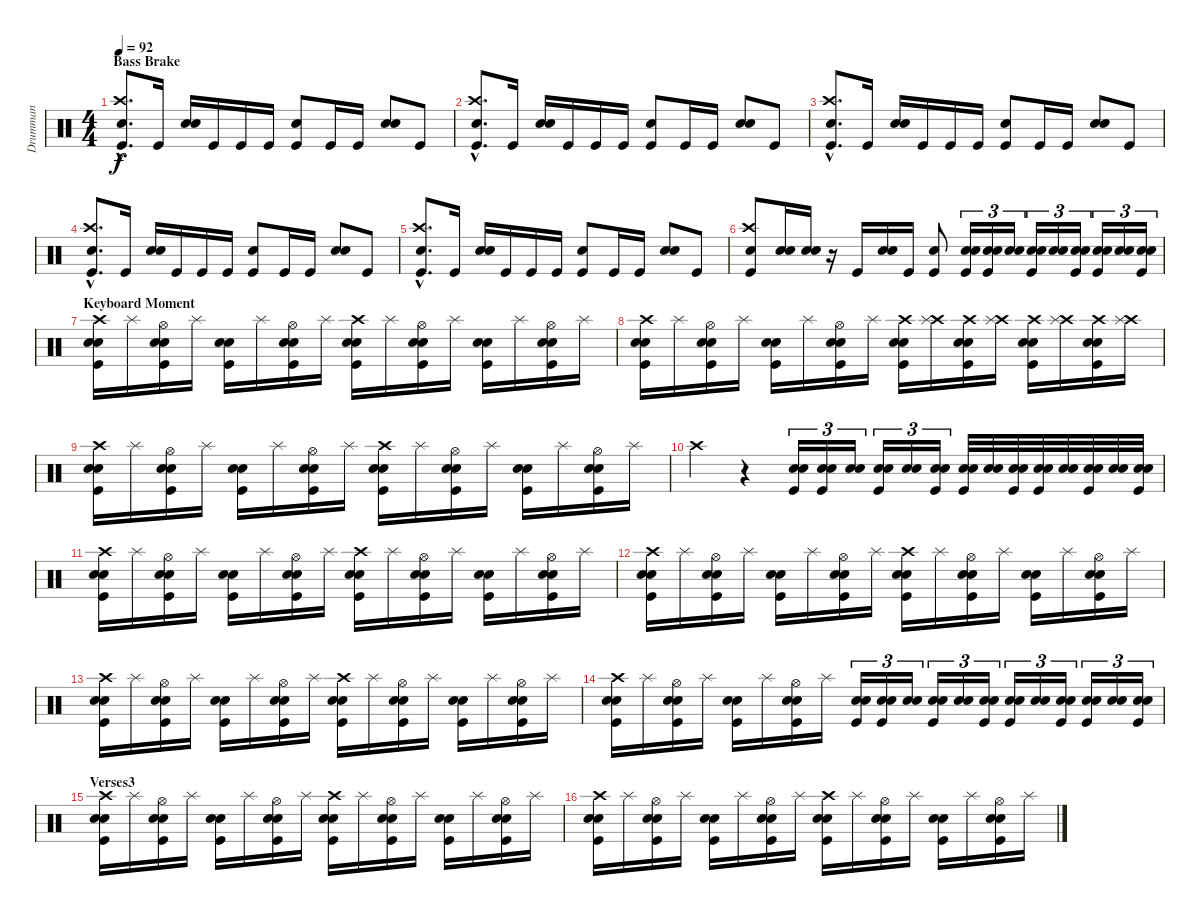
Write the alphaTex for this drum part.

\track ("Drumman" "Drumman") {instrument percussion}
\staff {score}
\articulation defaults
\ts (4 4)
\section ("" "Bass Brake")
\tempo 92
\clef neutral
\ks c
("Hand Clap (hit)"{hac} "Crash high (hit)"{hac} "Kick (hit)"{hac}).8{d dy f} "Kick (hit)".16 ("Snare (hit) 2" "Electric Snare (hit)").16 "Kick (hit)".16 "Kick (hit)".16 "Kick (hit)".16 ("Hand Clap (hit)" "Kick (hit)").8 "Kick (hit)".16 "Kick (hit)".16 ("Snare (hit) 2" "Electric Snare (hit)").8 "Kick (hit)".8 |
("Hand Clap (hit)"{hac} "Crash high (hit)"{hac} "Kick (hit)"{hac}).8{d} "Kick (hit)".16 ("Snare (hit) 2" "Electric Snare (hit)").16 "Kick (hit)".16 "Kick (hit)".16 "Kick (hit)".16 ("Hand Clap (hit)" "Kick (hit)").8 "Kick (hit)".16 "Kick (hit)".16 ("Snare (hit) 2" "Electric Snare (hit)").8 "Kick (hit)".8 |
("Hand Clap (hit)"{hac} "Crash high (hit)"{hac} "Kick (hit)"{hac}).8{d} "Kick (hit)".16 ("Snare (hit) 2" "Electric Snare (hit)").16 "Kick (hit)".16 "Kick (hit)".16 "Kick (hit)".16 ("Hand Clap (hit)" "Kick (hit)").8 "Kick (hit)".16 "Kick (hit)".16 ("Snare (hit) 2" "Electric Snare (hit)").8 "Kick (hit)".8 |
("Hand Clap (hit)"{hac} "Crash high (hit)"{hac} "Kick (hit)"{hac}).8{d} "Kick (hit)".16 ("Snare (hit) 2" "Electric Snare (hit)").16 "Kick (hit)".16 "Kick (hit)".16 "Kick (hit)".16 ("Hand Clap (hit)" "Kick (hit)").8 "Kick (hit)".16 "Kick (hit)".16 ("Snare (hit) 2" "Electric Snare (hit)").8 "Kick (hit)".8 |
("Hand Clap (hit)"{hac} "Crash high (hit)"{hac} "Kick (hit)"{hac}).8{d} "Kick (hit)".16 ("Snare (hit) 2" "Electric Snare (hit)").16 "Kick (hit)".16 "Kick (hit)".16 "Kick (hit)".16 ("Hand Clap (hit)" "Kick (hit)").8 "Kick (hit)".16 "Kick (hit)".16 ("Snare (hit) 2" "Electric Snare (hit)").8 "Kick (hit)".8 |
("Hand Clap (hit)" "Crash high (hit)" "Kick (hit)").8 ("Snare (hit) 2" "Electric Snare (hit)").16 ("Snare (hit) 2" "Electric Snare (hit)").16 r.16 "Kick (hit)".16 ("Snare (hit) 2" "Electric Snare (hit)").16 "Kick (hit)".16 ("Hand Clap (hit)" "Kick (hit)").8 ("Snare (hit) 2" "Electric Snare (hit)" "Kick (hit)").16{tu (3 2)} ("Snare (hit) 2" "Electric Snare (hit)" "Kick (hit)").16{tu (3 2)} ("Snare (hit) 2" "Electric Snare (hit)").16{tu (3 2)} ("Snare (hit) 2" "Electric Snare (hit)" "Kick (hit)").16{tu (3 2)} ("Snare (hit) 2" "Electric Snare (hit)").16{tu (3 2)} ("Snare (hit) 2" "Electric Snare (hit)" "Kick (hit)").16{tu (3 2)} ("Snare (hit) 2" "Electric Snare (hit)" "Kick (hit)").16{tu (3 2)} ("Snare (hit) 2" "Electric Snare (hit)").16{tu (3 2)} ("Snare (hit) 2" "Electric Snare (hit)" "Kick (hit)").16{tu (3 2)} |
\section ("" "Keyboard Moment")
("Crash high (hit)" "Snare (hit) 2" "Electric Snare (hit)" "Kick (hit)").16 "Splash (hit)".16 ("Hi-Hat (open)" "Snare (hit) 2" "Electric Snare (hit)" "Kick (hit)").16 "Splash (hit)".16 ("Snare (hit) 2" "Electric Snare (hit)" "Kick (hit)").16 "Splash (hit)".16 ("Hi-Hat (open)" "Snare (hit) 2" "Electric Snare (hit)" "Kick (hit)").16 "Splash (hit)".16 ("Crash high (hit)" "Snare (hit) 2" "Electric Snare (hit)" "Kick (hit)").16 "Splash (hit)".16 ("Hi-Hat (open)" "Snare (hit) 2" "Electric Snare (hit)" "Kick (hit)").16 "Splash (hit)".16 ("Snare (hit) 2" "Electric Snare (hit)" "Kick (hit)").16 "Splash (hit)".16 ("Hi-Hat (open)" "Snare (hit) 2" "Electric Snare (hit)" "Kick (hit)").16 "Splash (hit)".16 |
("Crash high (hit)" "Snare (hit) 2" "Electric Snare (hit)" "Kick (hit)").16 "Splash (hit)".16 ("Hi-Hat (open)" "Snare (hit) 2" "Electric Snare (hit)" "Kick (hit)").16 "Splash (hit)".16 ("Snare (hit) 2" "Electric Snare (hit)" "Kick (hit)").16 "Splash (hit)".16 ("Hi-Hat (open)" "Snare (hit) 2" "Electric Snare (hit)" "Kick (hit)").16 "Splash (hit)".16 ("Crash high (hit)" "Snare (hit) 2" "Electric Snare (hit)" "Kick (hit)").16 ("Crash high (hit)" "Splash (hit)").16 ("Crash high (hit)" "Snare (hit) 2" "Electric Snare (hit)" "Kick (hit)").16 ("Crash high (hit)" "Splash (hit)").16 ("Crash high (hit)" "Snare (hit) 2" "Electric Snare (hit)" "Kick (hit)").16 ("Crash high (hit)" "Splash (hit)").16 ("Crash high (hit)" "Snare (hit) 2" "Electric Snare (hit)" "Kick (hit)").16 ("Crash high (hit)" "Splash (hit)").16 |
("Crash high (hit)" "Snare (hit) 2" "Electric Snare (hit)" "Kick (hit)").16 "Splash (hit)".16 ("Hi-Hat (open)" "Snare (hit) 2" "Electric Snare (hit)" "Kick (hit)").16 "Splash (hit)".16 ("Snare (hit) 2" "Electric Snare (hit)" "Kick (hit)").16 "Splash (hit)".16 ("Hi-Hat (open)" "Snare (hit) 2" "Electric Snare (hit)" "Kick (hit)").16 "Splash (hit)".16 ("Crash high (hit)" "Snare (hit) 2" "Electric Snare (hit)" "Kick (hit)").16 "Splash (hit)".16 ("Hi-Hat (open)" "Snare (hit) 2" "Electric Snare (hit)" "Kick (hit)").16 "Splash (hit)".16 ("Snare (hit) 2" "Electric Snare (hit)" "Kick (hit)").16 "Splash (hit)".16 ("Hi-Hat (open)" "Snare (hit) 2" "Electric Snare (hit)" "Kick (hit)").16 "Splash (hit)".16 |
"Crash high (hit)".4 r.4 ("Snare (hit) 2" "Electric Snare (hit)" "Kick (hit)").16{tu (3 2)} ("Snare (hit) 2" "Electric Snare (hit)" "Kick (hit)").16{tu (3 2)} ("Snare (hit) 2" "Electric Snare (hit)").16{tu (3 2)} ("Snare (hit) 2" "Electric Snare (hit)" "Kick (hit)").16{tu (3 2)} ("Snare (hit) 2" "Electric Snare (hit)").16{tu (3 2)} ("Snare (hit) 2" "Electric Snare (hit)" "Kick (hit)").16{tu (3 2)} ("Snare (hit) 2" "Electric Snare (hit)" "Kick (hit)").32 ("Snare (hit) 2" "Electric Snare (hit)").32 ("Snare (hit) 2" "Electric Snare (hit)" "Kick (hit)").32 ("Snare (hit) 2" "Electric Snare (hit)" "Kick (hit)").32 ("Snare (hit) 2" "Electric Snare (hit)").32 ("Snare (hit) 2" "Electric Snare (hit)" "Kick (hit)").32 ("Snare (hit) 2" "Electric Snare (hit)").32 ("Snare (hit) 2" "Electric Snare (hit)" "Kick (hit)").32 |
("Crash high (hit)" "Snare (hit) 2" "Electric Snare (hit)" "Kick (hit)").16 "Splash (hit)".16 ("Hi-Hat (open)" "Snare (hit) 2" "Electric Snare (hit)" "Kick (hit)").16 "Splash (hit)".16 ("Snare (hit) 2" "Electric Snare (hit)" "Kick (hit)").16 "Splash (hit)".16 ("Hi-Hat (open)" "Snare (hit) 2" "Electric Snare (hit)" "Kick (hit)").16 "Splash (hit)".16 ("Crash high (hit)" "Snare (hit) 2" "Electric Snare (hit)" "Kick (hit)").16 "Splash (hit)".16 ("Hi-Hat (open)" "Snare (hit) 2" "Electric Snare (hit)" "Kick (hit)").16 "Splash (hit)".16 ("Snare (hit) 2" "Electric Snare (hit)" "Kick (hit)").16 "Splash (hit)".16 ("Hi-Hat (open)" "Snare (hit) 2" "Electric Snare (hit)" "Kick (hit)").16 "Splash (hit)".16 |
("Crash high (hit)" "Snare (hit) 2" "Electric Snare (hit)" "Kick (hit)").16 "Splash (hit)".16 ("Hi-Hat (open)" "Snare (hit) 2" "Electric Snare (hit)" "Kick (hit)").16 "Splash (hit)".16 ("Snare (hit) 2" "Electric Snare (hit)" "Kick (hit)").16 "Splash (hit)".16 ("Hi-Hat (open)" "Snare (hit) 2" "Electric Snare (hit)" "Kick (hit)").16 "Splash (hit)".16 ("Crash high (hit)" "Snare (hit) 2" "Electric Snare (hit)" "Kick (hit)").16 "Splash (hit)".16 ("Hi-Hat (open)" "Snare (hit) 2" "Electric Snare (hit)" "Kick (hit)").16 "Splash (hit)".16 ("Snare (hit) 2" "Electric Snare (hit)" "Kick (hit)").16 "Splash (hit)".16 ("Hi-Hat (open)" "Snare (hit) 2" "Electric Snare (hit)" "Kick (hit)").16 "Splash (hit)".16 |
("Crash high (hit)" "Snare (hit) 2" "Electric Snare (hit)" "Kick (hit)").16 "Splash (hit)".16 ("Hi-Hat (open)" "Snare (hit) 2" "Electric Snare (hit)" "Kick (hit)").16 "Splash (hit)".16 ("Snare (hit) 2" "Electric Snare (hit)" "Kick (hit)").16 "Splash (hit)".16 ("Hi-Hat (open)" "Snare (hit) 2" "Electric Snare (hit)" "Kick (hit)").16 "Splash (hit)".16 ("Crash high (hit)" "Snare (hit) 2" "Electric Snare (hit)" "Kick (hit)").16 "Splash (hit)".16 ("Hi-Hat (open)" "Snare (hit) 2" "Electric Snare (hit)" "Kick (hit)").16 "Splash (hit)".16 ("Snare (hit) 2" "Electric Snare (hit)" "Kick (hit)").16 "Splash (hit)".16 ("Hi-Hat (open)" "Snare (hit) 2" "Electric Snare (hit)" "Kick (hit)").16 "Splash (hit)".16 |
("Crash high (hit)" "Snare (hit) 2" "Electric Snare (hit)" "Kick (hit)").16 "Splash (hit)".16 ("Hi-Hat (open)" "Snare (hit) 2" "Electric Snare (hit)" "Kick (hit)").16 "Splash (hit)".16 ("Snare (hit) 2" "Electric Snare (hit)" "Kick (hit)").16 "Splash (hit)".16 ("Hi-Hat (open)" "Snare (hit) 2" "Electric Snare (hit)" "Kick (hit)").16 "Splash (hit)".16 ("Snare (hit) 2" "Electric Snare (hit)" "Kick (hit)").16{tu (3 2)} ("Snare (hit) 2" "Electric Snare (hit)" "Kick (hit)").16{tu (3 2)} ("Snare (hit) 2" "Electric Snare (hit)").16{tu (3 2)} ("Snare (hit) 2" "Electric Snare (hit)" "Kick (hit)").16{tu (3 2)} ("Snare (hit) 2" "Electric Snare (hit)").16{tu (3 2)} ("Snare (hit) 2" "Electric Snare (hit)" "Kick (hit)").16{tu (3 2)} ("Snare (hit) 2" "Electric Snare (hit)" "Kick (hit)").16{tu (3 2)} ("Snare (hit) 2" "Electric Snare (hit)").16{tu (3 2)} ("Snare (hit) 2" "Electric Snare (hit)" "Kick (hit)").16{tu (3 2)} ("Snare (hit) 2" "Electric Snare (hit)" "Kick (hit)").16{tu (3 2)} ("Snare (hit) 2" "Electric Snare (hit)").16{tu (3 2)} ("Snare (hit) 2" "Electric Snare (hit)" "Kick (hit)").16{tu (3 2)} |
\section ("" "Verses3")
("Crash high (hit)" "Snare (hit) 2" "Electric Snare (hit)" "Kick (hit)").16 "Splash (hit)".16 ("Hi-Hat (open)" "Snare (hit) 2" "Electric Snare (hit)" "Kick (hit)").16 "Splash (hit)".16 ("Snare (hit) 2" "Electric Snare (hit)" "Kick (hit)").16 "Splash (hit)".16 ("Hi-Hat (open)" "Snare (hit) 2" "Electric Snare (hit)" "Kick (hit)").16 "Splash (hit)".16 ("Crash high (hit)" "Snare (hit) 2" "Electric Snare (hit)" "Kick (hit)").16 "Splash (hit)".16 ("Hi-Hat (open)" "Snare (hit) 2" "Electric Snare (hit)" "Kick (hit)").16 "Splash (hit)".16 ("Snare (hit) 2" "Electric Snare (hit)" "Kick (hit)").16 "Splash (hit)".16 ("Hi-Hat (open)" "Snare (hit) 2" "Electric Snare (hit)" "Kick (hit)").16 "Splash (hit)".16 |
("Crash high (hit)" "Snare (hit) 2" "Electric Snare (hit)" "Kick (hit)").16 "Splash (hit)".16 ("Hi-Hat (open)" "Snare (hit) 2" "Electric Snare (hit)" "Kick (hit)").16 "Splash (hit)".16 ("Snare (hit) 2" "Electric Snare (hit)" "Kick (hit)").16 "Splash (hit)".16 ("Hi-Hat (open)" "Snare (hit) 2" "Electric Snare (hit)" "Kick (hit)").16 "Splash (hit)".16 ("Crash high (hit)" "Snare (hit) 2" "Electric Snare (hit)" "Kick (hit)").16 "Splash (hit)".16 ("Hi-Hat (open)" "Snare (hit) 2" "Electric Snare (hit)" "Kick (hit)").16 "Splash (hit)".16 ("Snare (hit) 2" "Electric Snare (hit)" "Kick (hit)").16 "Splash (hit)".16 ("Hi-Hat (open)" "Snare (hit) 2" "Electric Snare (hit)" "Kick (hit)").16 "Splash (hit)".16
